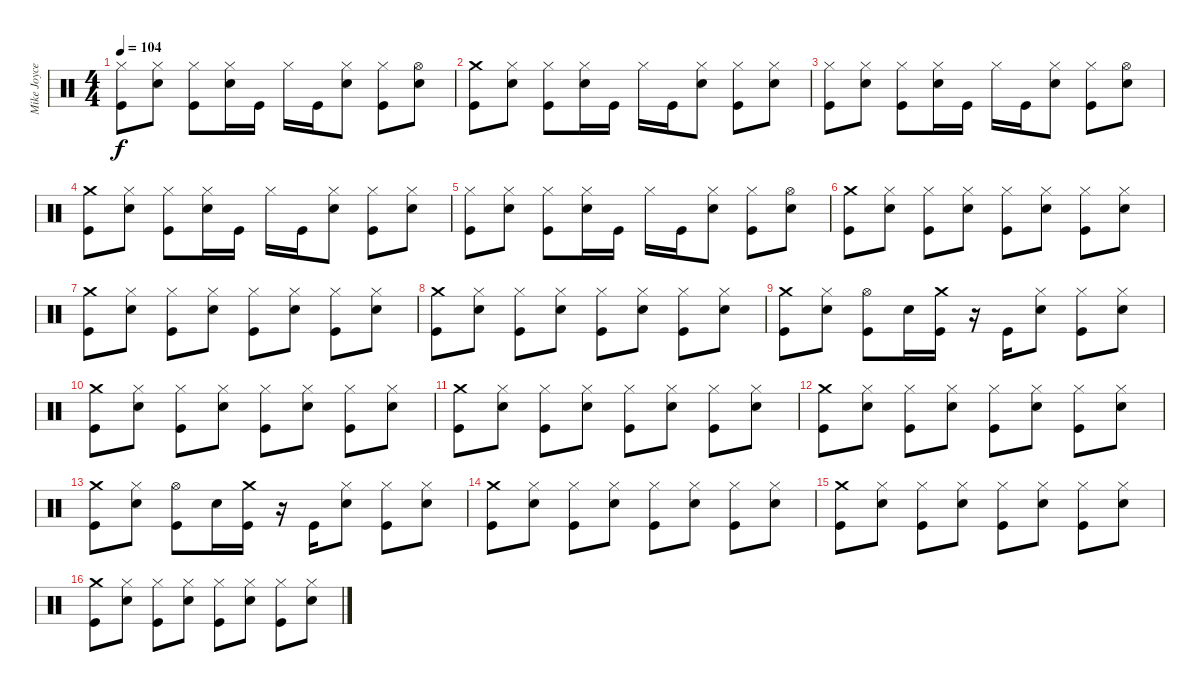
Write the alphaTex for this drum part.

\track ("Mike Joyce|Drums" "Mike Joyce") {instrument percussion}
\staff {score}
\articulation defaults
\ts (4 4)
\tempo 104
\clef neutral
\ks c
("Hi-Hat (closed)" "Kick (hit)").8{dy f} ("Hi-Hat (closed)" "Snare (hit) 2").8 ("Hi-Hat (closed)" "Kick (hit)").8 ("Hi-Hat (closed)" "Snare (hit) 2").16 "Kick (hit)".16 "Hi-Hat (closed)".16 "Kick (hit)".16 ("Hi-Hat (closed)" "Snare (hit) 2").8 ("Hi-Hat (closed)" "Kick (hit)").8 ("Hi-Hat (open)" "Snare (hit) 2").8 |
("Crash medium (hit)" "Kick (hit)").8 ("Hi-Hat (closed)" "Snare (hit) 2").8 ("Hi-Hat (closed)" "Kick (hit)").8 ("Hi-Hat (closed)" "Snare (hit) 2").16 "Kick (hit)".16 "Hi-Hat (closed)".16 "Kick (hit)".16 ("Hi-Hat (closed)" "Snare (hit) 2").8 ("Hi-Hat (closed)" "Kick (hit)").8 ("Hi-Hat (closed)" "Snare (hit) 2").8 |
("Hi-Hat (closed)" "Kick (hit)").8 ("Hi-Hat (closed)" "Snare (hit) 2").8 ("Hi-Hat (closed)" "Kick (hit)").8 ("Hi-Hat (closed)" "Snare (hit) 2").16 "Kick (hit)".16 "Hi-Hat (closed)".16 "Kick (hit)".16 ("Hi-Hat (closed)" "Snare (hit) 2").8 ("Hi-Hat (closed)" "Kick (hit)").8 ("Hi-Hat (open)" "Snare (hit) 2").8 |
("Crash medium (hit)" "Kick (hit)").8 ("Hi-Hat (closed)" "Snare (hit) 2").8 ("Hi-Hat (closed)" "Kick (hit)").8 ("Hi-Hat (closed)" "Snare (hit) 2").16 "Kick (hit)".16 "Hi-Hat (closed)".16 "Kick (hit)".16 ("Hi-Hat (closed)" "Snare (hit) 2").8 ("Hi-Hat (closed)" "Kick (hit)").8 ("Hi-Hat (closed)" "Snare (hit) 2").8 |
("Hi-Hat (closed)" "Kick (hit)").8 ("Hi-Hat (closed)" "Snare (hit) 2").8 ("Hi-Hat (closed)" "Kick (hit)").8 ("Hi-Hat (closed)" "Snare (hit) 2").16 "Kick (hit)".16 "Hi-Hat (closed)".16 "Kick (hit)".16 ("Hi-Hat (closed)" "Snare (hit) 2").8 ("Hi-Hat (closed)" "Kick (hit)").8 ("Hi-Hat (open)" "Snare (hit) 2").8 |
("Crash medium (hit)" "Kick (hit)").8 ("Hi-Hat (closed)" "Snare (hit) 2").8 ("Hi-Hat (closed)" "Kick (hit)").8 ("Hi-Hat (closed)" "Snare (hit) 2").8 ("Hi-Hat (closed)" "Kick (hit)").8 ("Hi-Hat (closed)" "Snare (hit) 2").8 ("Hi-Hat (closed)" "Kick (hit)").8 ("Hi-Hat (closed)" "Snare (hit) 2").8 |
("Crash medium (hit)" "Kick (hit)").8 ("Hi-Hat (closed)" "Snare (hit) 2").8 ("Hi-Hat (closed)" "Kick (hit)").8 ("Hi-Hat (closed)" "Snare (hit) 2").8 ("Hi-Hat (closed)" "Kick (hit)").8 ("Hi-Hat (closed)" "Snare (hit) 2").8 ("Hi-Hat (closed)" "Kick (hit)").8 ("Hi-Hat (closed)" "Snare (hit) 2").8 |
("Crash medium (hit)" "Kick (hit)").8 ("Hi-Hat (closed)" "Snare (hit) 2").8 ("Hi-Hat (closed)" "Kick (hit)").8 ("Hi-Hat (closed)" "Snare (hit) 2").8 ("Hi-Hat (closed)" "Kick (hit)").8 ("Hi-Hat (closed)" "Snare (hit) 2").8 ("Hi-Hat (closed)" "Kick (hit)").8 ("Hi-Hat (closed)" "Snare (hit) 2").8 |
("Crash medium (hit)" "Kick (hit)").8 ("Hi-Hat (closed)" "Snare (hit) 2").8 ("Hi-Hat (open)" "Kick (hit)").8 "Snare (hit) 2".16 ("Crash medium (hit)" "Kick (hit)").16 r.16 "Kick (hit)".16 ("Hi-Hat (closed)" "Snare (hit) 2").8 ("Hi-Hat (closed)" "Kick (hit)").8 ("Hi-Hat (closed)" "Snare (hit) 2").8 |
("Crash medium (hit)" "Kick (hit)").8 ("Hi-Hat (closed)" "Snare (hit) 2").8 ("Hi-Hat (closed)" "Kick (hit)").8 ("Hi-Hat (closed)" "Snare (hit) 2").8 ("Hi-Hat (closed)" "Kick (hit)").8 ("Hi-Hat (closed)" "Snare (hit) 2").8 ("Hi-Hat (closed)" "Kick (hit)").8 ("Hi-Hat (closed)" "Snare (hit) 2").8 |
("Crash medium (hit)" "Kick (hit)").8 ("Hi-Hat (closed)" "Snare (hit) 2").8 ("Hi-Hat (closed)" "Kick (hit)").8 ("Hi-Hat (closed)" "Snare (hit) 2").8 ("Hi-Hat (closed)" "Kick (hit)").8 ("Hi-Hat (closed)" "Snare (hit) 2").8 ("Hi-Hat (closed)" "Kick (hit)").8 ("Hi-Hat (closed)" "Snare (hit) 2").8 |
("Crash medium (hit)" "Kick (hit)").8 ("Hi-Hat (closed)" "Snare (hit) 2").8 ("Hi-Hat (closed)" "Kick (hit)").8 ("Hi-Hat (closed)" "Snare (hit) 2").8 ("Hi-Hat (closed)" "Kick (hit)").8 ("Hi-Hat (closed)" "Snare (hit) 2").8 ("Hi-Hat (closed)" "Kick (hit)").8 ("Hi-Hat (closed)" "Snare (hit) 2").8 |
("Crash medium (hit)" "Kick (hit)").8 ("Hi-Hat (closed)" "Snare (hit) 2").8 ("Hi-Hat (open)" "Kick (hit)").8 "Snare (hit) 2".16 ("Crash medium (hit)" "Kick (hit)").16 r.16 "Kick (hit)".16 ("Hi-Hat (closed)" "Snare (hit) 2").8 ("Hi-Hat (closed)" "Kick (hit)").8 ("Hi-Hat (closed)" "Snare (hit) 2").8 |
("Crash medium (hit)" "Kick (hit)").8 ("Hi-Hat (closed)" "Snare (hit) 2").8 ("Hi-Hat (closed)" "Kick (hit)").8 ("Hi-Hat (closed)" "Snare (hit) 2").8 ("Hi-Hat (closed)" "Kick (hit)").8 ("Hi-Hat (closed)" "Snare (hit) 2").8 ("Hi-Hat (closed)" "Kick (hit)").8 ("Hi-Hat (closed)" "Snare (hit) 2").8 |
("Crash medium (hit)" "Kick (hit)").8 ("Hi-Hat (closed)" "Snare (hit) 2").8 ("Hi-Hat (closed)" "Kick (hit)").8 ("Hi-Hat (closed)" "Snare (hit) 2").8 ("Hi-Hat (closed)" "Kick (hit)").8 ("Hi-Hat (closed)" "Snare (hit) 2").8 ("Hi-Hat (closed)" "Kick (hit)").8 ("Hi-Hat (closed)" "Snare (hit) 2").8 |
("Crash medium (hit)" "Kick (hit)").8 ("Hi-Hat (closed)" "Snare (hit) 2").8 ("Hi-Hat (closed)" "Kick (hit)").8 ("Hi-Hat (closed)" "Snare (hit) 2").8 ("Hi-Hat (closed)" "Kick (hit)").8 ("Hi-Hat (closed)" "Snare (hit) 2").8 ("Hi-Hat (closed)" "Kick (hit)").8 ("Hi-Hat (closed)" "Snare (hit) 2").8
